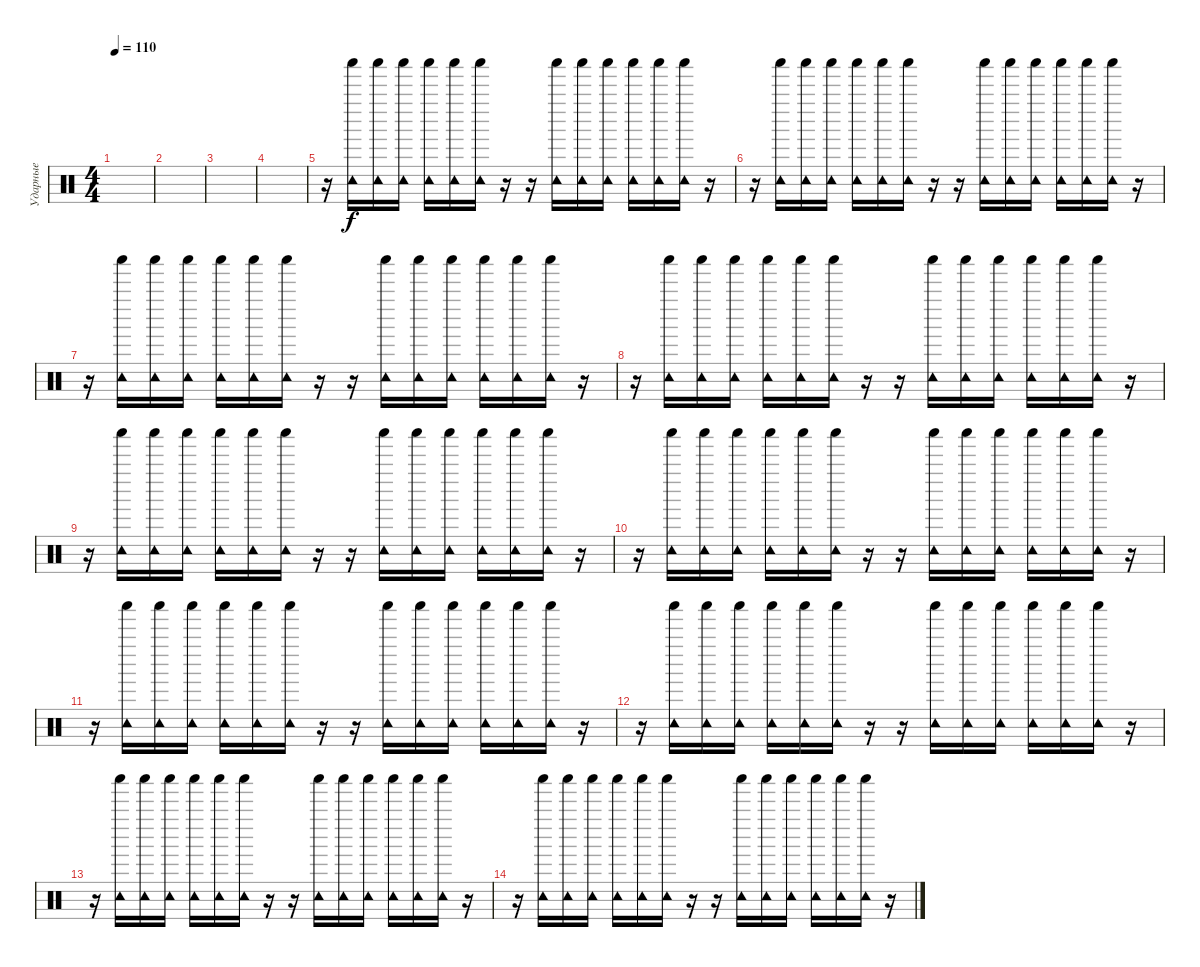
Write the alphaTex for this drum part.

\track ("Ударные" "Ударные") {instrument percussion}
\staff {score}
\articulation defaults
\ts (4 4)
\tempo 110
\clef neutral
\ks c
|
|
|
|
r.16 ("Shaker (hit)" "Tambourine (hit)").16 ("Shaker (hit)" "Tambourine (hit)").16 ("Shaker (hit)" "Tambourine (hit)").16 ("Shaker (hit)" "Tambourine (hit)").16 ("Shaker (hit)" "Tambourine (hit)").16 ("Shaker (hit)" "Tambourine (hit)").16 r.16 r.16 ("Shaker (hit)" "Tambourine (hit)").16 ("Shaker (hit)" "Tambourine (hit)").16 ("Shaker (hit)" "Tambourine (hit)").16 ("Shaker (hit)" "Tambourine (hit)").16 ("Shaker (hit)" "Tambourine (hit)").16 ("Shaker (hit)" "Tambourine (hit)").16 r.16 |
r.16 ("Shaker (hit)" "Tambourine (hit)").16 ("Shaker (hit)" "Tambourine (hit)").16 ("Shaker (hit)" "Tambourine (hit)").16 ("Shaker (hit)" "Tambourine (hit)").16 ("Shaker (hit)" "Tambourine (hit)").16 ("Shaker (hit)" "Tambourine (hit)").16 r.16 r.16 ("Shaker (hit)" "Tambourine (hit)").16 ("Shaker (hit)" "Tambourine (hit)").16 ("Shaker (hit)" "Tambourine (hit)").16 ("Shaker (hit)" "Tambourine (hit)").16 ("Shaker (hit)" "Tambourine (hit)").16 ("Shaker (hit)" "Tambourine (hit)").16 r.16 |
r.16 ("Shaker (hit)" "Tambourine (hit)").16 ("Shaker (hit)" "Tambourine (hit)").16 ("Shaker (hit)" "Tambourine (hit)").16 ("Shaker (hit)" "Tambourine (hit)").16 ("Shaker (hit)" "Tambourine (hit)").16 ("Shaker (hit)" "Tambourine (hit)").16 r.16 r.16 ("Shaker (hit)" "Tambourine (hit)").16 ("Shaker (hit)" "Tambourine (hit)").16 ("Shaker (hit)" "Tambourine (hit)").16 ("Shaker (hit)" "Tambourine (hit)").16 ("Shaker (hit)" "Tambourine (hit)").16 ("Shaker (hit)" "Tambourine (hit)").16 r.16 |
r.16 ("Shaker (hit)" "Tambourine (hit)").16 ("Shaker (hit)" "Tambourine (hit)").16 ("Shaker (hit)" "Tambourine (hit)").16 ("Shaker (hit)" "Tambourine (hit)").16 ("Shaker (hit)" "Tambourine (hit)").16 ("Shaker (hit)" "Tambourine (hit)").16 r.16 r.16 ("Shaker (hit)" "Tambourine (hit)").16 ("Shaker (hit)" "Tambourine (hit)").16 ("Shaker (hit)" "Tambourine (hit)").16 ("Shaker (hit)" "Tambourine (hit)").16 ("Shaker (hit)" "Tambourine (hit)").16 ("Shaker (hit)" "Tambourine (hit)").16 r.16 |
r.16 ("Shaker (hit)" "Tambourine (hit)").16 ("Shaker (hit)" "Tambourine (hit)").16 ("Shaker (hit)" "Tambourine (hit)").16 ("Shaker (hit)" "Tambourine (hit)").16 ("Shaker (hit)" "Tambourine (hit)").16 ("Shaker (hit)" "Tambourine (hit)").16 r.16 r.16 ("Shaker (hit)" "Tambourine (hit)").16 ("Shaker (hit)" "Tambourine (hit)").16 ("Shaker (hit)" "Tambourine (hit)").16 ("Shaker (hit)" "Tambourine (hit)").16 ("Shaker (hit)" "Tambourine (hit)").16 ("Shaker (hit)" "Tambourine (hit)").16 r.16 |
r.16 ("Shaker (hit)" "Tambourine (hit)").16 ("Shaker (hit)" "Tambourine (hit)").16 ("Shaker (hit)" "Tambourine (hit)").16 ("Shaker (hit)" "Tambourine (hit)").16 ("Shaker (hit)" "Tambourine (hit)").16 ("Shaker (hit)" "Tambourine (hit)").16 r.16 r.16 ("Shaker (hit)" "Tambourine (hit)").16 ("Shaker (hit)" "Tambourine (hit)").16 ("Shaker (hit)" "Tambourine (hit)").16 ("Shaker (hit)" "Tambourine (hit)").16 ("Shaker (hit)" "Tambourine (hit)").16 ("Shaker (hit)" "Tambourine (hit)").16 r.16 |
r.16 ("Shaker (hit)" "Tambourine (hit)").16 ("Shaker (hit)" "Tambourine (hit)").16 ("Shaker (hit)" "Tambourine (hit)").16 ("Shaker (hit)" "Tambourine (hit)").16 ("Shaker (hit)" "Tambourine (hit)").16 ("Shaker (hit)" "Tambourine (hit)").16 r.16 r.16 ("Shaker (hit)" "Tambourine (hit)").16 ("Shaker (hit)" "Tambourine (hit)").16 ("Shaker (hit)" "Tambourine (hit)").16 ("Shaker (hit)" "Tambourine (hit)").16 ("Shaker (hit)" "Tambourine (hit)").16 ("Shaker (hit)" "Tambourine (hit)").16 r.16 |
r.16 ("Shaker (hit)" "Tambourine (hit)").16 ("Shaker (hit)" "Tambourine (hit)").16 ("Shaker (hit)" "Tambourine (hit)").16 ("Shaker (hit)" "Tambourine (hit)").16 ("Shaker (hit)" "Tambourine (hit)").16 ("Shaker (hit)" "Tambourine (hit)").16 r.16 r.16 ("Shaker (hit)" "Tambourine (hit)").16 ("Shaker (hit)" "Tambourine (hit)").16 ("Shaker (hit)" "Tambourine (hit)").16 ("Shaker (hit)" "Tambourine (hit)").16 ("Shaker (hit)" "Tambourine (hit)").16 ("Shaker (hit)" "Tambourine (hit)").16 r.16 |
r.16 ("Shaker (hit)" "Tambourine (hit)").16 ("Shaker (hit)" "Tambourine (hit)").16 ("Shaker (hit)" "Tambourine (hit)").16 ("Shaker (hit)" "Tambourine (hit)").16 ("Shaker (hit)" "Tambourine (hit)").16 ("Shaker (hit)" "Tambourine (hit)").16 r.16 r.16 ("Shaker (hit)" "Tambourine (hit)").16 ("Shaker (hit)" "Tambourine (hit)").16 ("Shaker (hit)" "Tambourine (hit)").16 ("Shaker (hit)" "Tambourine (hit)").16 ("Shaker (hit)" "Tambourine (hit)").16 ("Shaker (hit)" "Tambourine (hit)").16 r.16 |
r.16 ("Shaker (hit)" "Tambourine (hit)").16 ("Shaker (hit)" "Tambourine (hit)").16 ("Shaker (hit)" "Tambourine (hit)").16 ("Shaker (hit)" "Tambourine (hit)").16 ("Shaker (hit)" "Tambourine (hit)").16 ("Shaker (hit)" "Tambourine (hit)").16 r.16 r.16 ("Shaker (hit)" "Tambourine (hit)").16 ("Shaker (hit)" "Tambourine (hit)").16 ("Shaker (hit)" "Tambourine (hit)").16 ("Shaker (hit)" "Tambourine (hit)").16 ("Shaker (hit)" "Tambourine (hit)").16 ("Shaker (hit)" "Tambourine (hit)").16 r.16
